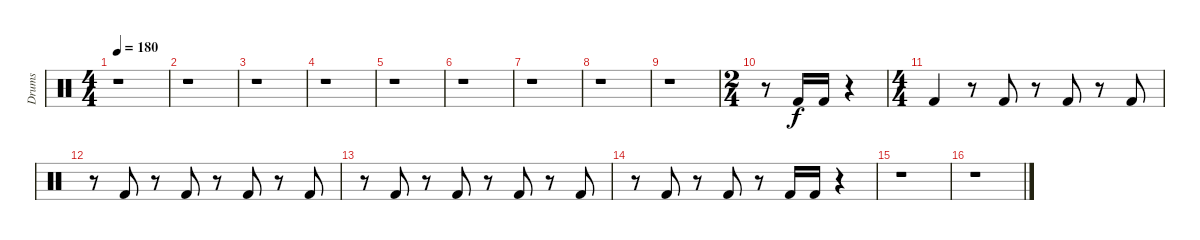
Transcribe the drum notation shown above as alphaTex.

\track ("Drums" "Drums") {instrument percussion}
\staff {score}
\articulation defaults
\ts (4 4)
\tempo 180
\clef neutral
\ks c
r.1{dy f} |
r.1 |
r.1 |
r.1 |
r.1 |
r.1 |
r.1 |
r.1 |
r.1 |
\ts (2 4)
r.8 "Kick (hit) 2".16 "Kick (hit) 2".16 r.4 |
\ts (4 4)
"Kick (hit) 2".4 r.8 "Kick (hit) 2".8 r.8 "Kick (hit) 2".8 r.8 "Kick (hit) 2".8 |
r.8 "Kick (hit) 2".8 r.8 "Kick (hit) 2".8 r.8 "Kick (hit) 2".8 r.8 "Kick (hit) 2".8 |
r.8 "Kick (hit) 2".8 r.8 "Kick (hit) 2".8 r.8 "Kick (hit) 2".8 r.8 "Kick (hit) 2".8 |
r.8 "Kick (hit) 2".8 r.8 "Kick (hit) 2".8 r.8 "Kick (hit) 2".16 "Kick (hit) 2".16 r.4 |
r.1 |
r.1
